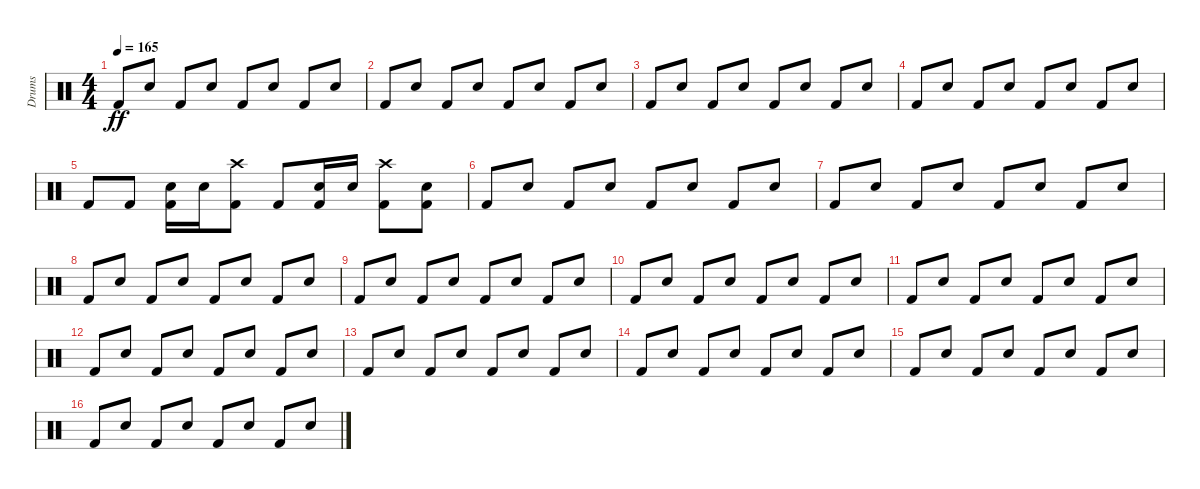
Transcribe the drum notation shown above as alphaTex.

\track ("Drums" "Drums") {instrument percussion}
\staff {score}
\articulation defaults
\ts (4 4)
\tempo 165
\clef neutral
\ks c "Kick (hit) 2".8{dy ff} "Snare (hit) 2".8 "Kick (hit) 2".8 "Snare (hit) 2".8 "Kick (hit) 2".8 "Snare (hit) 2".8 "Kick (hit) 2".8 "Snare (hit) 2".8
|
"Kick (hit) 2".8 "Snare (hit) 2".8 "Kick (hit) 2".8 "Snare (hit) 2".8 "Kick (hit) 2".8 "Snare (hit) 2".8 "Kick (hit) 2".8 "Snare (hit) 2".8 |
"Kick (hit) 2".8 "Snare (hit) 2".8 "Kick (hit) 2".8 "Snare (hit) 2".8 "Kick (hit) 2".8 "Snare (hit) 2".8 "Kick (hit) 2".8 "Snare (hit) 2".8 |
"Kick (hit) 2".8 "Snare (hit) 2".8 "Kick (hit) 2".8 "Snare (hit) 2".8 "Kick (hit) 2".8 "Snare (hit) 2".8 "Kick (hit) 2".8 "Snare (hit) 2".8 |
"Kick (hit) 2".8 "Kick (hit) 2".8 ("Snare (hit) 2" "Kick (hit) 2").16 "Snare (hit) 2".16 ("Crash high (hit)" "Kick (hit) 2").8 "Kick (hit) 2".8 ("Snare (hit) 2" "Kick (hit) 2").16 "Snare (hit) 2".16 ("Crash high (hit)" "Kick (hit) 2").8 ("Snare (hit) 2" "Kick (hit) 2").8 |
"Kick (hit) 2".8 "Snare (hit) 2".8 "Kick (hit) 2".8 "Snare (hit) 2".8 "Kick (hit) 2".8 "Snare (hit) 2".8 "Kick (hit) 2".8 "Snare (hit) 2".8 |
"Kick (hit) 2".8 "Snare (hit) 2".8 "Kick (hit) 2".8 "Snare (hit) 2".8 "Kick (hit) 2".8 "Snare (hit) 2".8 "Kick (hit) 2".8 "Snare (hit) 2".8 |
"Kick (hit) 2".8 "Snare (hit) 2".8 "Kick (hit) 2".8 "Snare (hit) 2".8 "Kick (hit) 2".8 "Snare (hit) 2".8 "Kick (hit) 2".8 "Snare (hit) 2".8 |
"Kick (hit) 2".8 "Snare (hit) 2".8 "Kick (hit) 2".8 "Snare (hit) 2".8 "Kick (hit) 2".8 "Snare (hit) 2".8 "Kick (hit) 2".8 "Snare (hit) 2".8 |
"Kick (hit) 2".8 "Snare (hit) 2".8 "Kick (hit) 2".8 "Snare (hit) 2".8 "Kick (hit) 2".8 "Snare (hit) 2".8 "Kick (hit) 2".8 "Snare (hit) 2".8 |
"Kick (hit) 2".8 "Snare (hit) 2".8 "Kick (hit) 2".8 "Snare (hit) 2".8 "Kick (hit) 2".8 "Snare (hit) 2".8 "Kick (hit) 2".8 "Snare (hit) 2".8 |
"Kick (hit) 2".8 "Snare (hit) 2".8 "Kick (hit) 2".8 "Snare (hit) 2".8 "Kick (hit) 2".8 "Snare (hit) 2".8 "Kick (hit) 2".8 "Snare (hit) 2".8 |
"Kick (hit) 2".8 "Snare (hit) 2".8 "Kick (hit) 2".8 "Snare (hit) 2".8 "Kick (hit) 2".8 "Snare (hit) 2".8 "Kick (hit) 2".8 "Snare (hit) 2".8 |
"Kick (hit) 2".8 "Snare (hit) 2".8 "Kick (hit) 2".8 "Snare (hit) 2".8 "Kick (hit) 2".8 "Snare (hit) 2".8 "Kick (hit) 2".8 "Snare (hit) 2".8 |
"Kick (hit) 2".8 "Snare (hit) 2".8 "Kick (hit) 2".8 "Snare (hit) 2".8 "Kick (hit) 2".8 "Snare (hit) 2".8 "Kick (hit) 2".8 "Snare (hit) 2".8 |
"Kick (hit) 2".8 "Snare (hit) 2".8 "Kick (hit) 2".8 "Snare (hit) 2".8 "Kick (hit) 2".8 "Snare (hit) 2".8 "Kick (hit) 2".8 "Snare (hit) 2".8
